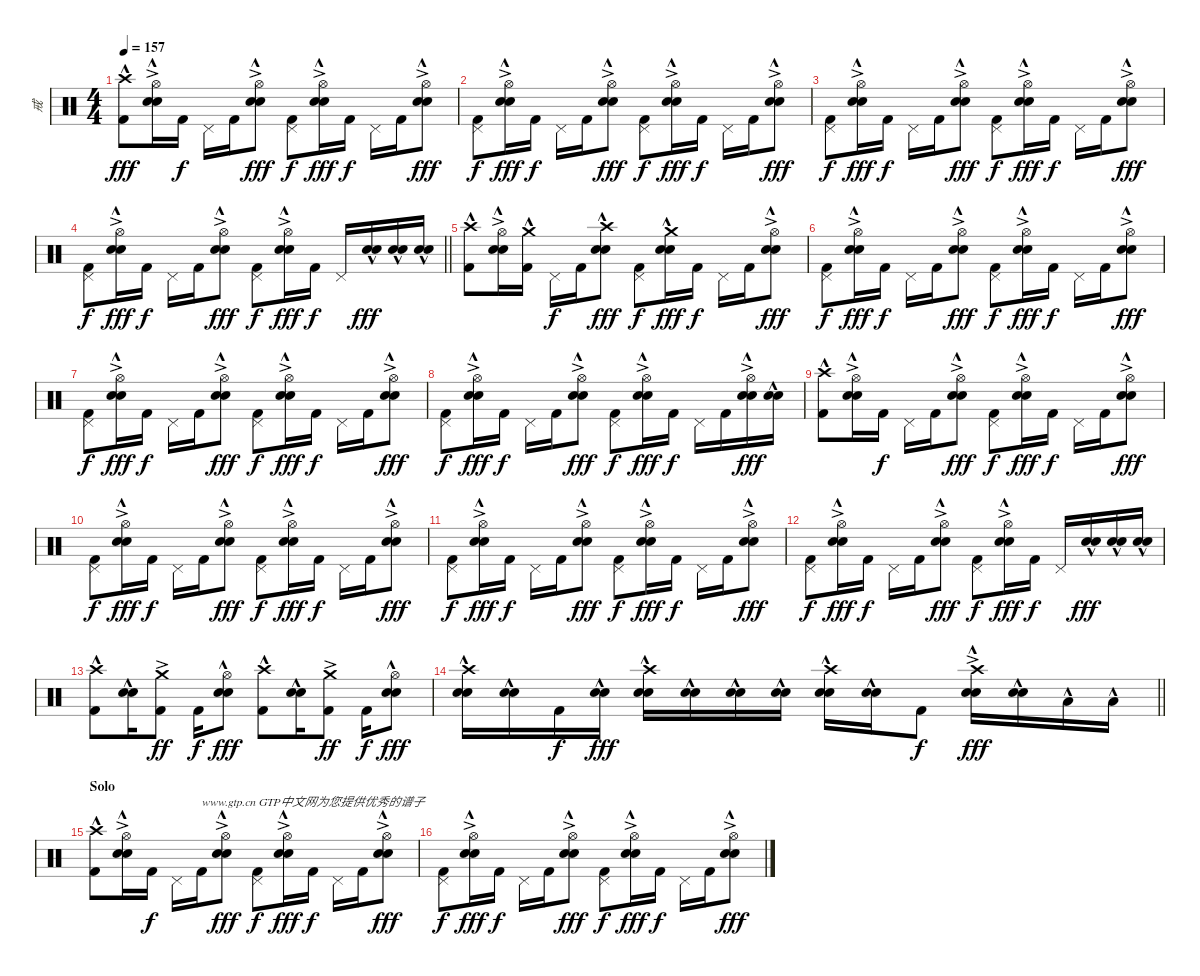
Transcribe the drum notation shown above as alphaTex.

\track ("戒" "戒") {instrument percussion}
\staff {score}
\articulation defaults
\ts (4 4)
\tempo 157
\clef neutral
\ks c
("Crash high (hit)"{hac} "Kick (hit) 2").8{dy fff} ("Hi-Hat (open)"{ac} "Electric Snare (hit)"{hac} "Snare (hit) 2").16 "Kick (hit) 2".16{dy f} "Pedal Hi-Hat (hit)".16 "Kick (hit) 2".16 ("Hi-Hat (open)"{ac} "Electric Snare (hit)"{hac} "Snare (hit) 2").8{dy fff} ("Pedal Hi-Hat (hit)" "Kick (hit) 2").8{dy f} ("Hi-Hat (open)"{ac} "Electric Snare (hit)"{hac} "Snare (hit) 2").16{dy fff} "Kick (hit) 2".16{dy f} "Pedal Hi-Hat (hit)".16 "Kick (hit) 2".16 ("Hi-Hat (open)"{ac} "Electric Snare (hit)"{hac} "Snare (hit) 2").8{dy fff} |
("Pedal Hi-Hat (hit)" "Kick (hit) 2").8{dy f} ("Hi-Hat (open)"{ac} "Electric Snare (hit)"{hac} "Snare (hit) 2").16{dy fff} "Kick (hit) 2".16{dy f} "Pedal Hi-Hat (hit)".16 "Kick (hit) 2".16 ("Hi-Hat (open)"{ac} "Electric Snare (hit)"{hac} "Snare (hit) 2").8{dy fff} ("Pedal Hi-Hat (hit)" "Kick (hit) 2").8{dy f} ("Hi-Hat (open)"{ac} "Electric Snare (hit)"{hac} "Snare (hit) 2").16{dy fff} "Kick (hit) 2".16{dy f} "Pedal Hi-Hat (hit)".16 "Kick (hit) 2".16 ("Hi-Hat (open)"{ac} "Electric Snare (hit)"{hac} "Snare (hit) 2").8{dy fff} |
("Pedal Hi-Hat (hit)" "Kick (hit) 2").8{dy f} ("Hi-Hat (open)"{ac} "Electric Snare (hit)"{hac} "Snare (hit) 2").16{dy fff} "Kick (hit) 2".16{dy f} "Pedal Hi-Hat (hit)".16 "Kick (hit) 2".16 ("Hi-Hat (open)"{ac} "Electric Snare (hit)"{hac} "Snare (hit) 2").8{dy fff} ("Pedal Hi-Hat (hit)" "Kick (hit) 2").8{dy f} ("Hi-Hat (open)"{ac} "Electric Snare (hit)"{hac} "Snare (hit) 2").16{dy fff} "Kick (hit) 2".16{dy f} "Pedal Hi-Hat (hit)".16 "Kick (hit) 2".16 ("Hi-Hat (open)"{ac} "Electric Snare (hit)"{hac} "Snare (hit) 2").8{dy fff} |
\barLineRight lightlight
("Pedal Hi-Hat (hit)" "Kick (hit) 2").8{dy f} ("Hi-Hat (open)"{ac} "Electric Snare (hit)"{hac} "Snare (hit) 2").16{dy fff} "Kick (hit) 2".16{dy f} "Pedal Hi-Hat (hit)".16 "Kick (hit) 2".16 ("Hi-Hat (open)"{ac} "Electric Snare (hit)"{hac} "Snare (hit) 2").8{dy fff} ("Pedal Hi-Hat (hit)" "Kick (hit) 2").8{dy f} ("Hi-Hat (open)"{ac} "Electric Snare (hit)"{hac} "Snare (hit) 2").16{dy fff} "Kick (hit) 2".16{dy f} "Pedal Hi-Hat (hit)".16 ("Electric Snare (hit)"{hac} "Snare (hit) 2").16{dy fff} ("Electric Snare (hit)"{hac} "Snare (hit) 2").16 ("Electric Snare (hit)"{hac} "Snare (hit) 2").16 |
\section ("" "")
("Crash high (hit)"{hac} "Kick (hit) 2").8 ("Hi-Hat (open)"{ac} "Electric Snare (hit)"{hac} "Snare (hit) 2").16 ("Crash medium (hit)"{hac} "Kick (hit) 2").16 "Pedal Hi-Hat (hit)".16{dy f} "Kick (hit) 2".16 ("Crash high (hit)"{hac} "Electric Snare (hit)"{hac} "Snare (hit) 2").8{dy fff} ("Pedal Hi-Hat (hit)" "Kick (hit) 2").8{dy f} ("Crash medium (hit)"{hac} "Electric Snare (hit)"{hac} "Snare (hit) 2").16{dy fff} "Kick (hit) 2".16{dy f} "Pedal Hi-Hat (hit)".16 "Kick (hit) 2".16 ("Hi-Hat (open)"{ac} "Electric Snare (hit)"{hac} "Snare (hit) 2").8{dy fff} |
("Pedal Hi-Hat (hit)" "Kick (hit) 2").8{dy f} ("Hi-Hat (open)"{ac} "Electric Snare (hit)"{hac} "Snare (hit) 2").16{dy fff} "Kick (hit) 2".16{dy f} "Pedal Hi-Hat (hit)".16 "Kick (hit) 2".16 ("Hi-Hat (open)"{ac} "Electric Snare (hit)"{hac} "Snare (hit) 2").8{dy fff} ("Pedal Hi-Hat (hit)" "Kick (hit) 2").8{dy f} ("Hi-Hat (open)"{ac} "Electric Snare (hit)"{hac} "Snare (hit) 2").16{dy fff} "Kick (hit) 2".16{dy f} "Pedal Hi-Hat (hit)".16 "Kick (hit) 2".16 ("Hi-Hat (open)"{ac} "Electric Snare (hit)"{hac} "Snare (hit) 2").8{dy fff} |
("Pedal Hi-Hat (hit)" "Kick (hit) 2").8{dy f} ("Hi-Hat (open)"{ac} "Electric Snare (hit)"{hac} "Snare (hit) 2").16{dy fff} "Kick (hit) 2".16{dy f} "Pedal Hi-Hat (hit)".16 "Kick (hit) 2".16 ("Hi-Hat (open)"{ac} "Electric Snare (hit)"{hac} "Snare (hit) 2").8{dy fff} ("Pedal Hi-Hat (hit)" "Kick (hit) 2").8{dy f} ("Hi-Hat (open)"{ac} "Electric Snare (hit)"{hac} "Snare (hit) 2").16{dy fff} "Kick (hit) 2".16{dy f} "Pedal Hi-Hat (hit)".16 "Kick (hit) 2".16 ("Hi-Hat (open)"{ac} "Electric Snare (hit)"{hac} "Snare (hit) 2").8{dy fff} |
("Pedal Hi-Hat (hit)" "Kick (hit) 2").8{dy f} ("Hi-Hat (open)"{ac} "Electric Snare (hit)"{hac} "Snare (hit) 2").16{dy fff} "Kick (hit) 2".16{dy f} "Pedal Hi-Hat (hit)".16 "Kick (hit) 2".16 ("Hi-Hat (open)"{ac} "Electric Snare (hit)"{hac} "Snare (hit) 2").8{dy fff} ("Pedal Hi-Hat (hit)" "Kick (hit) 2").8{dy f} ("Hi-Hat (open)"{ac} "Electric Snare (hit)"{hac} "Snare (hit) 2").16{dy fff} "Kick (hit) 2".16{dy f} "Pedal Hi-Hat (hit)".16 "Kick (hit) 2".16 ("Hi-Hat (open)"{ac} "Electric Snare (hit)"{hac} "Snare (hit) 2").16{dy fff} ("Electric Snare (hit)"{hac} "Snare (hit) 2").16 |
("Crash high (hit)"{hac} "Kick (hit) 2").8 ("Hi-Hat (open)"{ac} "Electric Snare (hit)"{hac} "Snare (hit) 2").16 "Kick (hit) 2".16{dy f} "Pedal Hi-Hat (hit)".16 "Kick (hit) 2".16 ("Hi-Hat (open)"{ac} "Electric Snare (hit)"{hac} "Snare (hit) 2").8{dy fff} ("Pedal Hi-Hat (hit)" "Kick (hit) 2").8{dy f} ("Hi-Hat (open)"{ac} "Electric Snare (hit)"{hac} "Snare (hit) 2").16{dy fff} "Kick (hit) 2".16{dy f} "Pedal Hi-Hat (hit)".16 "Kick (hit) 2".16 ("Hi-Hat (open)"{ac} "Electric Snare (hit)"{hac} "Snare (hit) 2").8{dy fff} |
("Pedal Hi-Hat (hit)" "Kick (hit) 2").8{dy f} ("Hi-Hat (open)"{ac} "Electric Snare (hit)"{hac} "Snare (hit) 2").16{dy fff} "Kick (hit) 2".16{dy f} "Pedal Hi-Hat (hit)".16 "Kick (hit) 2".16 ("Hi-Hat (open)"{ac} "Electric Snare (hit)"{hac} "Snare (hit) 2").8{dy fff} ("Pedal Hi-Hat (hit)" "Kick (hit) 2").8{dy f} ("Hi-Hat (open)"{ac} "Electric Snare (hit)"{hac} "Snare (hit) 2").16{dy fff} "Kick (hit) 2".16{dy f} "Pedal Hi-Hat (hit)".16 "Kick (hit) 2".16 ("Hi-Hat (open)"{ac} "Electric Snare (hit)"{hac} "Snare (hit) 2").8{dy fff} |
("Pedal Hi-Hat (hit)" "Kick (hit) 2").8{dy f} ("Hi-Hat (open)"{ac} "Electric Snare (hit)"{hac} "Snare (hit) 2").16{dy fff} "Kick (hit) 2".16{dy f} "Pedal Hi-Hat (hit)".16 "Kick (hit) 2".16 ("Hi-Hat (open)"{ac} "Electric Snare (hit)"{hac} "Snare (hit) 2").8{dy fff} ("Pedal Hi-Hat (hit)" "Kick (hit) 2").8{dy f} ("Hi-Hat (open)"{ac} "Electric Snare (hit)"{hac} "Snare (hit) 2").16{dy fff} "Kick (hit) 2".16{dy f} "Pedal Hi-Hat (hit)".16 "Kick (hit) 2".16 ("Hi-Hat (open)"{ac} "Electric Snare (hit)"{hac} "Snare (hit) 2").8{dy fff} |
("Pedal Hi-Hat (hit)" "Kick (hit) 2").8{dy f} ("Hi-Hat (open)"{ac} "Electric Snare (hit)"{hac} "Snare (hit) 2").16{dy fff} "Kick (hit) 2".16{dy f} "Pedal Hi-Hat (hit)".16 "Kick (hit) 2".16 ("Hi-Hat (open)"{ac} "Electric Snare (hit)"{hac} "Snare (hit) 2").8{dy fff} ("Pedal Hi-Hat (hit)" "Kick (hit) 2").8{dy f} ("Hi-Hat (open)"{ac} "Electric Snare (hit)"{hac} "Snare (hit) 2").16{dy fff} "Kick (hit) 2".16{dy f} "Pedal Hi-Hat (hit)".16 ("Electric Snare (hit)"{hac} "Snare (hit) 2").16{dy fff} ("Electric Snare (hit)"{hac} "Snare (hit) 2").16 ("Electric Snare (hit)"{hac} "Snare (hit) 2").16 |
("Crash high (hit)"{hac} "Kick (hit) 2").8 ("Electric Snare (hit)"{hac} "Snare (hit) 2").16 ("Crash medium (hit)"{ac} "Kick (hit) 2").8{dy ff} "Kick (hit) 2".16{dy f} ("Hi-Hat (open)" "Electric Snare (hit)"{hac} "Snare (hit) 2").8{dy fff} ("Crash high (hit)"{hac} "Kick (hit) 2").8 ("Electric Snare (hit)"{hac} "Snare (hit) 2").16 ("Crash medium (hit)"{ac} "Kick (hit) 2").8{dy ff} "Kick (hit) 2".16{dy f} ("Hi-Hat (open)" "Electric Snare (hit)"{hac} "Snare (hit) 2").8{dy fff} |
\barLineRight lightlight
("Crash high (hit)"{hac} "Electric Snare (hit)"{hac} "Snare (hit) 2").16 ("Electric Snare (hit)"{hac} "Snare (hit) 2").16 "Kick (hit) 2".16{dy f} ("Electric Snare (hit)"{hac} "Snare (hit) 2").16{dy fff} ("Crash high (hit)"{hac} "Electric Snare (hit)"{hac} "Snare (hit) 2").16 ("Electric Snare (hit)"{hac} "Snare (hit) 2").16 ("Electric Snare (hit)"{hac} "Snare (hit) 2").16 ("Electric Snare (hit)"{hac} "Snare (hit) 2").16 ("Crash high (hit)"{hac} "Electric Snare (hit)"{hac} "Snare (hit) 2").16 ("Electric Snare (hit)"{hac} "Snare (hit) 2").16 "Kick (hit) 2".8{dy f} ("Crash high (hit)"{ac} "Electric Snare (hit)"{hac} "Snare (hit) 2").16{dy fff} ("Electric Snare (hit)"{hac} "Snare (hit) 2").16 "Low Tom (hit)"{hac}.16 "Low Tom (hit)"{hac}.16 |
\section ("" "Solo")
("Crash high (hit)"{hac} "Kick (hit) 2").8 ("Hi-Hat (open)"{ac} "Electric Snare (hit)"{hac} "Snare (hit) 2").16 "Kick (hit) 2".16{dy f} "Pedal Hi-Hat (hit)".16 "Kick (hit) 2".16{txt "www.gtp.cn GTP中文网为您提供优秀的谱子"} ("Hi-Hat (open)"{ac} "Electric Snare (hit)"{hac} "Snare (hit) 2").8{dy fff} ("Pedal Hi-Hat (hit)" "Kick (hit) 2").8{dy f} ("Hi-Hat (open)"{ac} "Electric Snare (hit)"{hac} "Snare (hit) 2").16{dy fff} "Kick (hit) 2".16{dy f} "Pedal Hi-Hat (hit)".16 "Kick (hit) 2".16 ("Hi-Hat (open)"{ac} "Electric Snare (hit)"{hac} "Snare (hit) 2").8{dy fff} |
("Pedal Hi-Hat (hit)" "Kick (hit) 2").8{dy f} ("Hi-Hat (open)"{ac} "Electric Snare (hit)"{hac} "Snare (hit) 2").16{dy fff} "Kick (hit) 2".16{dy f} "Pedal Hi-Hat (hit)".16 "Kick (hit) 2".16 ("Hi-Hat (open)"{ac} "Electric Snare (hit)"{hac} "Snare (hit) 2").8{dy fff} ("Pedal Hi-Hat (hit)" "Kick (hit) 2").8{dy f} ("Hi-Hat (open)"{ac} "Electric Snare (hit)"{hac} "Snare (hit) 2").16{dy fff} "Kick (hit) 2".16{dy f} "Pedal Hi-Hat (hit)".16 "Kick (hit) 2".16 ("Hi-Hat (open)"{ac} "Electric Snare (hit)"{hac} "Snare (hit) 2").8{dy fff}
